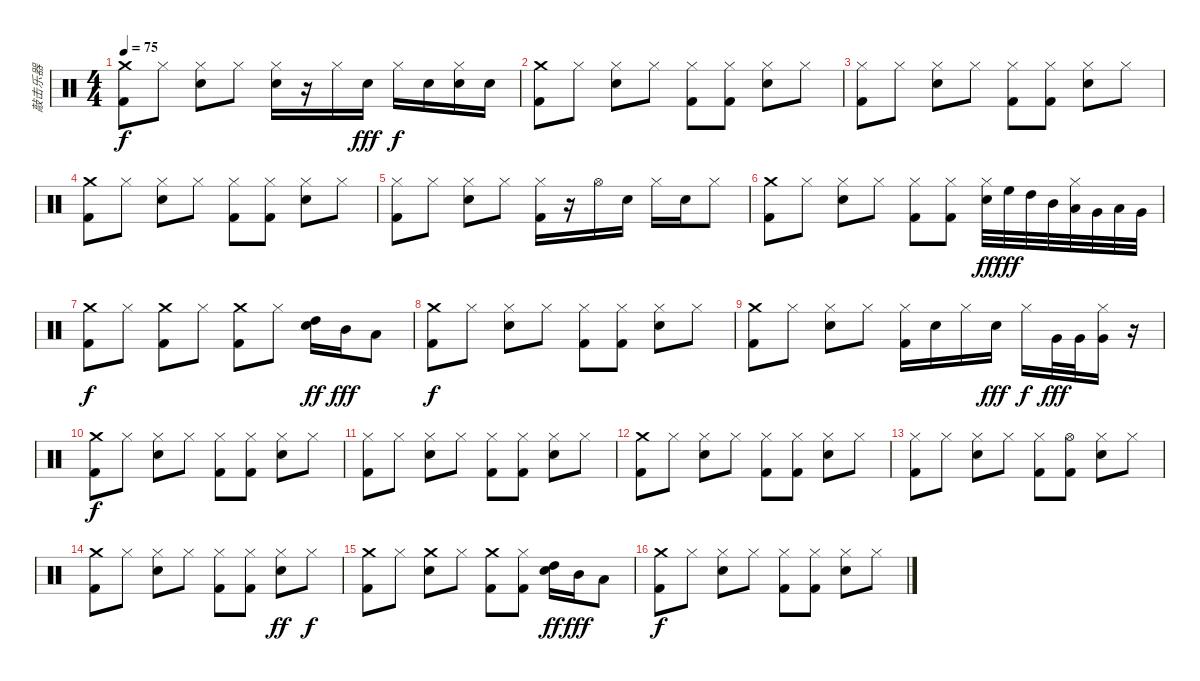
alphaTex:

\track ("敲击乐器" "敲击乐器") {instrument percussion}
\staff {score}
\articulation defaults
\ts (4 4)
\tempo 75
\clef neutral
\ks c
("Crash medium (hit)" "Kick (hit) 2").8{dy f} "Hi-Hat (closed)".8 ("Hi-Hat (closed)" "Electric Snare (hit)").8 "Hi-Hat (closed)".8 ("Hi-Hat (closed)" "Electric Snare (hit)").16 r.16 "Hi-Hat (closed)".16 "Electric Snare (hit)".16{dy fff} "Hi-Hat (closed)".16{dy f} "Electric Snare (hit)".16 ("Hi-Hat (closed)" "Electric Snare (hit)").16 "Electric Snare (hit)".16 |
("Crash medium (hit)" "Kick (hit) 2").8 "Hi-Hat (closed)".8 ("Hi-Hat (closed)" "Electric Snare (hit)").8 "Hi-Hat (closed)".8 ("Hi-Hat (closed)" "Kick (hit) 2").8 ("Hi-Hat (closed)" "Kick (hit) 2").8 ("Hi-Hat (closed)" "Electric Snare (hit)").8 "Hi-Hat (closed)".8 |
("Hi-Hat (closed)" "Kick (hit) 2").8 "Hi-Hat (closed)".8 ("Hi-Hat (closed)" "Electric Snare (hit)").8 "Hi-Hat (closed)".8 ("Hi-Hat (closed)" "Kick (hit) 2").8 ("Hi-Hat (closed)" "Kick (hit) 2").8 ("Hi-Hat (closed)" "Electric Snare (hit)").8 "Hi-Hat (closed)".8 |
("Crash medium (hit)" "Kick (hit) 2").8 "Hi-Hat (closed)".8 ("Hi-Hat (closed)" "Electric Snare (hit)").8 "Hi-Hat (closed)".8 ("Hi-Hat (closed)" "Kick (hit) 2").8 ("Hi-Hat (closed)" "Kick (hit) 2").8 ("Hi-Hat (closed)" "Electric Snare (hit)").8 "Hi-Hat (closed)".8 |
("Hi-Hat (closed)" "Kick (hit) 2").8 "Hi-Hat (closed)".8 ("Hi-Hat (closed)" "Electric Snare (hit)").8 "Hi-Hat (closed)".8 ("Hi-Hat (closed)" "Kick (hit) 2").16 r.16 "Hi-Hat (open)".16 "Electric Snare (hit)".16 "Hi-Hat (closed)".16 "Electric Snare (hit)".16 "Hi-Hat (closed)".8 |
("Crash medium (hit)" "Kick (hit) 2").8 "Hi-Hat (closed)".8 ("Hi-Hat (closed)" "Electric Snare (hit)").8 "Hi-Hat (closed)".8 ("Hi-Hat (closed)" "Kick (hit) 2").8 ("Hi-Hat (closed)" "Kick (hit) 2").8 ("Hi-Hat (closed)" "Electric Snare (hit)").32{dy ff} "High Floor Tom (hit)".32{dy fff} "High Tom (hit)".32 "Mid Tom (hit)".32 ("Hi-Hat (closed)" "Low Tom (hit)").32 "Very Low Tom (hit)".32 "Low Floor Tom (hit)".32 "Very Low Tom (hit)".32 |
("Crash medium (hit)" "Kick (hit) 2").8{dy f} "Hi-Hat (closed)".8 ("Crash medium (hit)" "Kick (hit) 2").8 "Hi-Hat (closed)".8 ("Crash medium (hit)" "Kick (hit) 2").8 "Hi-Hat (closed)".8 ("High Tom (hit)" "Electric Snare (hit)").16{dy ff} "Mid Tom (hit)".16{dy fff} "Low Tom (hit)".8 |
("Crash medium (hit)" "Kick (hit) 2").8{dy f} "Hi-Hat (closed)".8 ("Hi-Hat (closed)" "Electric Snare (hit)").8 "Hi-Hat (closed)".8 ("Hi-Hat (closed)" "Kick (hit) 2").8 ("Hi-Hat (closed)" "Kick (hit) 2").8 ("Hi-Hat (closed)" "Electric Snare (hit)").8 "Hi-Hat (closed)".8 |
("Crash medium (hit)" "Kick (hit) 2").8 "Hi-Hat (closed)".8 ("Hi-Hat (closed)" "Electric Snare (hit)").8 "Hi-Hat (closed)".8 ("Hi-Hat (closed)" "Kick (hit) 2").16 "Electric Snare (hit)".16 "Hi-Hat (closed)".16 "Electric Snare (hit)".16{dy fff} "Hi-Hat (closed)".16{dy f} "Very Low Tom (hit)".32{dy fff} "Very Low Tom (hit)".32 ("Hi-Hat (closed)" "Very Low Tom (hit)").16 r.16 |
("Crash medium (hit)" "Kick (hit) 2").8{dy f} "Hi-Hat (closed)".8 ("Hi-Hat (closed)" "Electric Snare (hit)").8 "Hi-Hat (closed)".8 ("Hi-Hat (closed)" "Kick (hit) 2").8 ("Hi-Hat (closed)" "Kick (hit) 2").8 ("Hi-Hat (closed)" "Electric Snare (hit)").8 "Hi-Hat (closed)".8 |
("Hi-Hat (closed)" "Kick (hit) 2").8 "Hi-Hat (closed)".8 ("Hi-Hat (closed)" "Electric Snare (hit)").8 "Hi-Hat (closed)".8 ("Hi-Hat (closed)" "Kick (hit) 2").8 ("Hi-Hat (closed)" "Kick (hit) 2").8 ("Hi-Hat (closed)" "Electric Snare (hit)").8 "Hi-Hat (closed)".8 |
("Crash medium (hit)" "Kick (hit) 2").8 "Hi-Hat (closed)".8 ("Hi-Hat (closed)" "Electric Snare (hit)").8 "Hi-Hat (closed)".8 ("Hi-Hat (closed)" "Kick (hit) 2").8 ("Hi-Hat (closed)" "Kick (hit) 2").8 ("Hi-Hat (closed)" "Electric Snare (hit)").8 "Hi-Hat (closed)".8 |
("Hi-Hat (closed)" "Kick (hit) 2").8 "Hi-Hat (closed)".8 ("Hi-Hat (closed)" "Electric Snare (hit)").8 "Hi-Hat (closed)".8 ("Hi-Hat (closed)" "Kick (hit) 2").8 ("Hi-Hat (open)" "Kick (hit) 2").8 ("Hi-Hat (closed)" "Electric Snare (hit)").8 "Hi-Hat (closed)".8 |
("Crash medium (hit)" "Kick (hit) 2").8 "Hi-Hat (closed)".8 ("Hi-Hat (closed)" "Electric Snare (hit)").8 "Hi-Hat (closed)".8 ("Hi-Hat (closed)" "Kick (hit) 2").8 ("Hi-Hat (closed)" "Kick (hit) 2").8 ("Hi-Hat (closed)" "Electric Snare (hit)").8{dy ff} "Hi-Hat (closed)".8{dy f} |
("Crash medium (hit)" "Kick (hit) 2").8 "Hi-Hat (closed)".8 ("Crash medium (hit)" "Electric Snare (hit)").8 "Hi-Hat (closed)".8 ("Crash medium (hit)" "Kick (hit) 2").8 ("Hi-Hat (closed)" "Kick (hit) 2").8 ("High Tom (hit)" "Electric Snare (hit)").16{dy ff} "Mid Tom (hit)".16{dy fff} "Low Tom (hit)".8 |
("Crash medium (hit)" "Kick (hit) 2").8{dy f} "Hi-Hat (closed)".8 ("Hi-Hat (closed)" "Electric Snare (hit)").8 "Hi-Hat (closed)".8 ("Hi-Hat (closed)" "Kick (hit) 2").8 ("Hi-Hat (closed)" "Kick (hit) 2").8 ("Hi-Hat (closed)" "Electric Snare (hit)").8 "Hi-Hat (closed)".8
